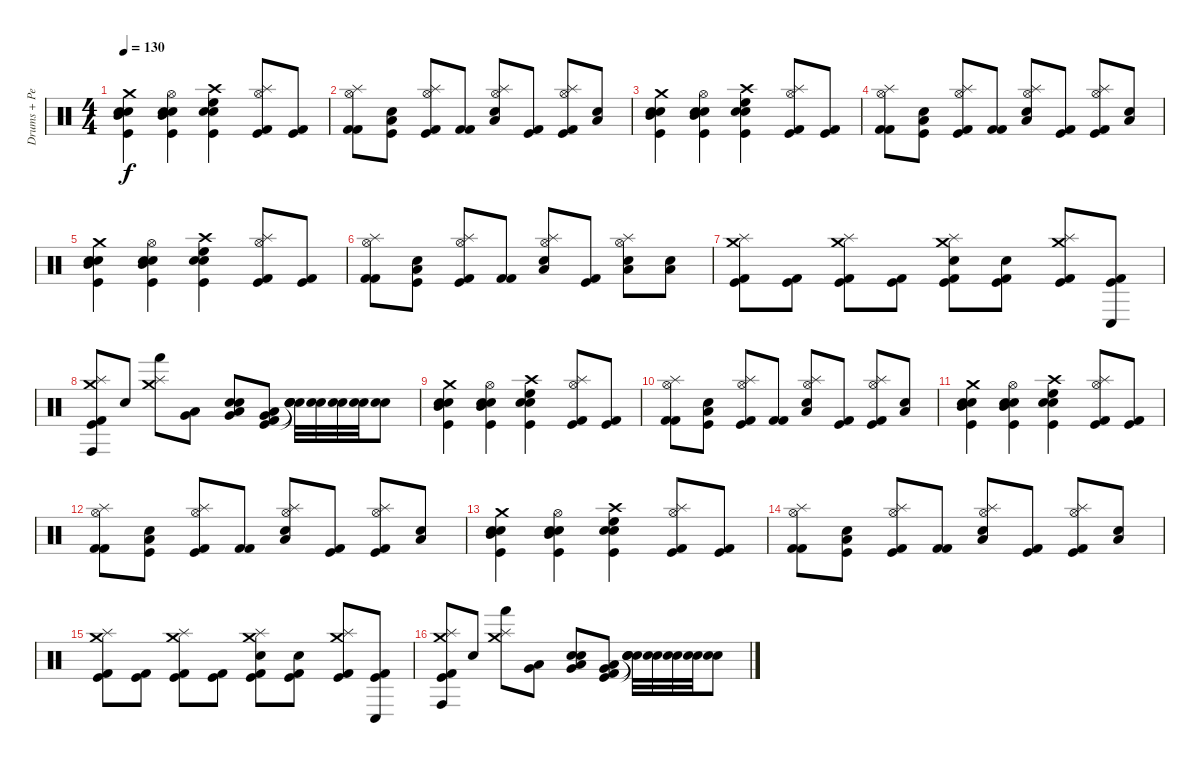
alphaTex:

\track ("Drums + Percussions (Dave Chavarri)" "Drums + Pe") {instrument percussion}
\staff {score}
\articulation defaults
\ts (4 4)
\tempo 130
\clef neutral
\ks c
("Crash medium (hit)" "Snare (hit) 2" "Electric Snare (hit)" "Mid Tom (hit)" "Kick (hit)").4{dy f} ("Hi-Hat (open)" "Snare (hit) 2" "Electric Snare (hit)" "Mid Tom (hit)" "Kick (hit)").4 ("Crash high (hit)" "Snare (hit) 2" "Electric Snare (hit)" "High Floor Tom (hit)" "Kick (hit)").4 ("Hi-Hat (open)" "Splash (hit)" "Kick (hit) 2" "Kick (hit)").8 ("Kick (hit) 2" "Kick (hit)").8 |
("Hi-Hat (open)" "Splash (hit)" "Kick (hit) 2" "Kick (hit) 2").8 ("Electric Snare (hit)" "Low Floor Tom (hit)" "Kick (hit)").8 ("Hi-Hat (open)" "Splash (hit)" "Kick (hit) 2" "Kick (hit)").8 ("Kick (hit) 2" "Kick (hit) 2").8 ("Hi-Hat (open)" "Splash (hit)" "Electric Snare (hit)" "Low Floor Tom (hit)").8 ("Kick (hit)" "Kick (hit) 2").8 ("Hi-Hat (open)" "Splash (hit)" "Kick (hit)" "Kick (hit) 2").8 ("Electric Snare (hit)" "Low Floor Tom (hit)").8 |
("Crash medium (hit)" "Snare (hit) 2" "Electric Snare (hit)" "Mid Tom (hit)" "Kick (hit)").4 ("Hi-Hat (open)" "Snare (hit) 2" "Electric Snare (hit)" "Mid Tom (hit)" "Kick (hit)").4 ("Crash high (hit)" "Snare (hit) 2" "Electric Snare (hit)" "High Floor Tom (hit)" "Kick (hit)").4 ("Hi-Hat (open)" "Splash (hit)" "Kick (hit) 2" "Kick (hit)").8 ("Kick (hit) 2" "Kick (hit)").8 |
("Hi-Hat (open)" "Splash (hit)" "Kick (hit) 2" "Kick (hit) 2").8 ("Electric Snare (hit)" "Low Floor Tom (hit)" "Kick (hit)").8 ("Hi-Hat (open)" "Splash (hit)" "Kick (hit) 2" "Kick (hit)").8 ("Kick (hit) 2" "Kick (hit) 2").8 ("Hi-Hat (open)" "Splash (hit)" "Electric Snare (hit)" "Low Floor Tom (hit)").8 ("Kick (hit)" "Kick (hit) 2").8 ("Hi-Hat (open)" "Splash (hit)" "Kick (hit)" "Kick (hit) 2").8 ("Electric Snare (hit)" "Low Floor Tom (hit)").8 |
("Crash medium (hit)" "Snare (hit) 2" "Electric Snare (hit)" "Mid Tom (hit)" "Kick (hit)").4 ("Hi-Hat (open)" "Snare (hit) 2" "Electric Snare (hit)" "Mid Tom (hit)" "Kick (hit)").4 ("Crash high (hit)" "Snare (hit) 2" "Electric Snare (hit)" "High Floor Tom (hit)" "Kick (hit)").4 ("Hi-Hat (open)" "Splash (hit)" "Kick (hit) 2" "Kick (hit)").8 ("Kick (hit) 2" "Kick (hit)").8 |
("Hi-Hat (open)" "Splash (hit)" "Kick (hit) 2" "Kick (hit) 2").8 ("Electric Snare (hit)" "Low Floor Tom (hit)" "Kick (hit)").8 ("Hi-Hat (open)" "Splash (hit)" "Kick (hit) 2" "Kick (hit)").8 ("Kick (hit) 2" "Kick (hit) 2").8 ("Hi-Hat (open)" "Splash (hit)" "Electric Snare (hit)" "Low Floor Tom (hit)").8 ("Kick (hit)" "Kick (hit) 2").8 ("Hi-Hat (open)" "Splash (hit)" "Electric Snare (hit)" "Low Floor Tom (hit)").8 ("Electric Snare (hit)" "Low Floor Tom (hit)").8 |
("Crash medium (hit)" "Splash (hit)" "Kick (hit)" "Kick (hit) 2").8 ("Kick (hit)" "Kick (hit) 2").8 ("Crash medium (hit)" "Splash (hit)" "Kick (hit)" "Kick (hit) 2").8 ("Kick (hit)" "Kick (hit) 2").8 ("Crash medium (hit)" "Splash (hit)" "Electric Snare (hit)" "Kick (hit)" "Kick (hit) 2").8 ("Electric Snare (hit)" "Kick (hit)" "Kick (hit) 2").8 ("Crash medium (hit)" "Splash (hit)" "Kick (hit)" "Kick (hit) 2").8 ("Conga low (hit)" "Kick (hit)" "Kick (hit) 2").8 |
("Crash medium (hit)" "Splash (hit)" "Conga high (hit)" "Kick (hit)" "Kick (hit) 2").8 "Electric Snare (hit)".8 ("Crash medium (hit)" "Splash (hit)" "Hand (hit)").8 ("Low Floor Tom (hit)" "Very Low Tom (hit)").8 ("Snare (hit) 2" "Electric Snare (hit)" "Low Floor Tom (hit)" "Very Low Tom (hit)").8 ("Kick (hit) 2" "Kick (hit)" "Low Floor Tom (hit)" "Very Low Tom (hit)").8 ("Snare (hit)"{t} "Snare (hit)"{t} "Electric Snare (hit)" "Electric Snare (hit)").32 ("Electric Snare (hit)" "Electric Snare (hit)").32 ("Electric Snare (hit)" "Electric Snare (hit)").32 ("Electric Snare (hit)" "Electric Snare (hit)").32 ("Electric Snare (hit)" "Snare (hit) 2").8 |
("Crash medium (hit)" "Snare (hit) 2" "Electric Snare (hit)" "Mid Tom (hit)" "Kick (hit)").4 ("Hi-Hat (open)" "Snare (hit) 2" "Electric Snare (hit)" "Mid Tom (hit)" "Kick (hit)").4 ("Crash high (hit)" "Snare (hit) 2" "Electric Snare (hit)" "High Floor Tom (hit)" "Kick (hit)").4 ("Hi-Hat (open)" "Splash (hit)" "Kick (hit) 2" "Kick (hit)").8 ("Kick (hit) 2" "Kick (hit)").8 |
("Hi-Hat (open)" "Splash (hit)" "Kick (hit) 2" "Kick (hit) 2").8 ("Electric Snare (hit)" "Low Floor Tom (hit)" "Kick (hit)").8 ("Hi-Hat (open)" "Splash (hit)" "Kick (hit) 2" "Kick (hit)").8 ("Kick (hit) 2" "Kick (hit) 2").8 ("Hi-Hat (open)" "Splash (hit)" "Electric Snare (hit)" "Low Floor Tom (hit)").8 ("Kick (hit)" "Kick (hit) 2").8 ("Hi-Hat (open)" "Splash (hit)" "Kick (hit)" "Kick (hit) 2").8 ("Electric Snare (hit)" "Low Floor Tom (hit)").8 |
("Crash medium (hit)" "Snare (hit) 2" "Electric Snare (hit)" "Mid Tom (hit)" "Kick (hit)").4 ("Hi-Hat (open)" "Snare (hit) 2" "Electric Snare (hit)" "Mid Tom (hit)" "Kick (hit)").4 ("Crash high (hit)" "Snare (hit) 2" "Electric Snare (hit)" "High Floor Tom (hit)" "Kick (hit)").4 ("Hi-Hat (open)" "Splash (hit)" "Kick (hit) 2" "Kick (hit)").8 ("Kick (hit) 2" "Kick (hit)").8 |
("Hi-Hat (open)" "Splash (hit)" "Kick (hit) 2" "Kick (hit) 2").8 ("Electric Snare (hit)" "Low Floor Tom (hit)" "Kick (hit)").8 ("Hi-Hat (open)" "Splash (hit)" "Kick (hit) 2" "Kick (hit)").8 ("Kick (hit) 2" "Kick (hit) 2").8 ("Hi-Hat (open)" "Splash (hit)" "Electric Snare (hit)" "Low Floor Tom (hit)").8 ("Kick (hit)" "Kick (hit) 2").8 ("Hi-Hat (open)" "Splash (hit)" "Kick (hit)" "Kick (hit) 2").8 ("Electric Snare (hit)" "Low Floor Tom (hit)").8 |
("Crash medium (hit)" "Snare (hit) 2" "Electric Snare (hit)" "Mid Tom (hit)" "Kick (hit)").4 ("Hi-Hat (open)" "Snare (hit) 2" "Electric Snare (hit)" "Mid Tom (hit)" "Kick (hit)").4 ("Crash high (hit)" "Snare (hit) 2" "Electric Snare (hit)" "High Floor Tom (hit)" "Kick (hit)").4 ("Hi-Hat (open)" "Splash (hit)" "Kick (hit) 2" "Kick (hit)").8 ("Kick (hit) 2" "Kick (hit)").8 |
("Hi-Hat (open)" "Splash (hit)" "Kick (hit) 2" "Kick (hit) 2").8 ("Electric Snare (hit)" "Low Floor Tom (hit)" "Kick (hit)").8 ("Hi-Hat (open)" "Splash (hit)" "Kick (hit) 2" "Kick (hit)").8 ("Kick (hit) 2" "Kick (hit) 2").8 ("Hi-Hat (open)" "Splash (hit)" "Electric Snare (hit)" "Low Floor Tom (hit)").8 ("Kick (hit)" "Kick (hit) 2").8 ("Hi-Hat (open)" "Splash (hit)" "Kick (hit)" "Kick (hit) 2").8 ("Electric Snare (hit)" "Low Floor Tom (hit)").8 |
("Crash medium (hit)" "Splash (hit)" "Kick (hit)" "Kick (hit) 2").8 ("Kick (hit)" "Kick (hit) 2").8 ("Crash medium (hit)" "Splash (hit)" "Kick (hit)" "Kick (hit) 2").8 ("Kick (hit)" "Kick (hit) 2").8 ("Crash medium (hit)" "Splash (hit)" "Electric Snare (hit)" "Kick (hit)" "Kick (hit) 2").8 ("Electric Snare (hit)" "Kick (hit)" "Kick (hit) 2").8 ("Crash medium (hit)" "Splash (hit)" "Kick (hit)" "Kick (hit) 2").8 ("Conga low (hit)" "Kick (hit)" "Kick (hit) 2").8 |
("Crash medium (hit)" "Splash (hit)" "Conga high (hit)" "Kick (hit)" "Kick (hit) 2").8 "Electric Snare (hit)".8 ("Crash medium (hit)" "Splash (hit)" "Hand (hit)").8 ("Low Floor Tom (hit)" "Very Low Tom (hit)").8 ("Snare (hit) 2" "Electric Snare (hit)" "Low Floor Tom (hit)" "Very Low Tom (hit)").8 ("Kick (hit) 2" "Kick (hit)" "Low Floor Tom (hit)" "Very Low Tom (hit)").8 ("Snare (hit)"{t} "Snare (hit)"{t} "Electric Snare (hit)" "Electric Snare (hit)").32 ("Electric Snare (hit)" "Electric Snare (hit)").32 ("Electric Snare (hit)" "Electric Snare (hit)").32 ("Electric Snare (hit)" "Electric Snare (hit)").32 ("Electric Snare (hit)" "Snare (hit) 2").8
